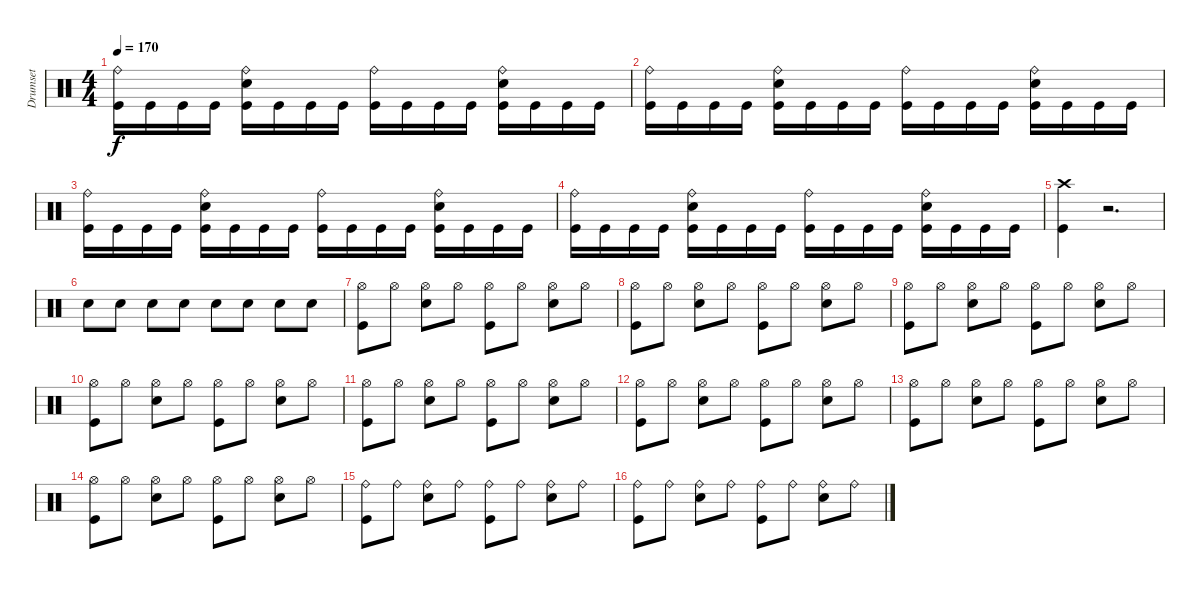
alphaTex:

\track ("Drumset" "Drumset") {instrument percussion}
\staff {score}
\articulation defaults
\ts (4 4)
\tempo 170
\clef neutral
\ks c
("Ride (bell)" "Kick (hit)").16{dy f} "Kick (hit)".16 "Kick (hit)".16 "Kick (hit)".16 ("Ride (bell)" "Snare (hit) 2" "Kick (hit)").16 "Kick (hit)".16 "Kick (hit)".16 "Kick (hit)".16 ("Ride (bell)" "Kick (hit)").16 "Kick (hit)".16 "Kick (hit)".16 "Kick (hit)".16 ("Ride (bell)" "Snare (hit) 2" "Kick (hit)").16 "Kick (hit)".16 "Kick (hit)".16 "Kick (hit)".16 |
("Ride (bell)" "Kick (hit)").16 "Kick (hit)".16 "Kick (hit)".16 "Kick (hit)".16 ("Ride (bell)" "Snare (hit) 2" "Kick (hit)").16 "Kick (hit)".16 "Kick (hit)".16 "Kick (hit)".16 ("Ride (bell)" "Kick (hit)").16 "Kick (hit)".16 "Kick (hit)".16 "Kick (hit)".16 ("Ride (bell)" "Snare (hit) 2" "Kick (hit)").16 "Kick (hit)".16 "Kick (hit)".16 "Kick (hit)".16 |
("Ride (bell)" "Kick (hit)").16 "Kick (hit)".16 "Kick (hit)".16 "Kick (hit)".16 ("Ride (bell)" "Snare (hit) 2" "Kick (hit)").16 "Kick (hit)".16 "Kick (hit)".16 "Kick (hit)".16 ("Ride (bell)" "Kick (hit)").16 "Kick (hit)".16 "Kick (hit)".16 "Kick (hit)".16 ("Ride (bell)" "Snare (hit) 2" "Kick (hit)").16 "Kick (hit)".16 "Kick (hit)".16 "Kick (hit)".16 |
("Ride (bell)" "Kick (hit)").16 "Kick (hit)".16 "Kick (hit)".16 "Kick (hit)".16 ("Ride (bell)" "Snare (hit) 2" "Kick (hit)").16 "Kick (hit)".16 "Kick (hit)".16 "Kick (hit)".16 ("Ride (bell)" "Kick (hit)").16 "Kick (hit)".16 "Kick (hit)".16 "Kick (hit)".16 ("Ride (bell)" "Snare (hit) 2" "Kick (hit)").16 "Kick (hit)".16 "Kick (hit)".16 "Kick (hit)".16 |
("Crash high (hit)" "Kick (hit)").4 r.2{d} |
"Snare (hit) 2".8 "Snare (hit) 2".8 "Snare (hit) 2".8 "Snare (hit) 2".8 "Snare (hit) 2".8 "Snare (hit) 2".8 "Snare (hit) 2".8 "Snare (hit) 2".8 |
("Hi-Hat (open)" "Kick (hit)").8 "Hi-Hat (open)".8 ("Hi-Hat (open)" "Snare (hit) 2").8 "Hi-Hat (open)".8 ("Hi-Hat (open)" "Kick (hit)").8 "Hi-Hat (open)".8 ("Hi-Hat (open)" "Snare (hit) 2").8 "Hi-Hat (open)".8 |
("Hi-Hat (open)" "Kick (hit)").8 "Hi-Hat (open)".8 ("Hi-Hat (open)" "Snare (hit) 2").8 "Hi-Hat (open)".8 ("Hi-Hat (open)" "Kick (hit)").8 "Hi-Hat (open)".8 ("Hi-Hat (open)" "Snare (hit) 2").8 "Hi-Hat (open)".8 |
("Hi-Hat (open)" "Kick (hit)").8 "Hi-Hat (open)".8 ("Hi-Hat (open)" "Snare (hit) 2").8 "Hi-Hat (open)".8 ("Hi-Hat (open)" "Kick (hit)").8 "Hi-Hat (open)".8 ("Hi-Hat (open)" "Snare (hit) 2").8 "Hi-Hat (open)".8 |
("Hi-Hat (open)" "Kick (hit)").8 "Hi-Hat (open)".8 ("Hi-Hat (open)" "Snare (hit) 2").8 "Hi-Hat (open)".8 ("Hi-Hat (open)" "Kick (hit)").8 "Hi-Hat (open)".8 ("Hi-Hat (open)" "Snare (hit) 2").8 "Hi-Hat (open)".8 |
("Hi-Hat (open)" "Kick (hit)").8 "Hi-Hat (open)".8 ("Hi-Hat (open)" "Snare (hit) 2").8 "Hi-Hat (open)".8 ("Hi-Hat (open)" "Kick (hit)").8 "Hi-Hat (open)".8 ("Hi-Hat (open)" "Snare (hit) 2").8 "Hi-Hat (open)".8 |
("Hi-Hat (open)" "Kick (hit)").8 "Hi-Hat (open)".8 ("Hi-Hat (open)" "Snare (hit) 2").8 "Hi-Hat (open)".8 ("Hi-Hat (open)" "Kick (hit)").8 "Hi-Hat (open)".8 ("Hi-Hat (open)" "Snare (hit) 2").8 "Hi-Hat (open)".8 |
("Hi-Hat (open)" "Kick (hit)").8 "Hi-Hat (open)".8 ("Hi-Hat (open)" "Snare (hit) 2").8 "Hi-Hat (open)".8 ("Hi-Hat (open)" "Kick (hit)").8 "Hi-Hat (open)".8 ("Hi-Hat (open)" "Snare (hit) 2").8 "Hi-Hat (open)".8 |
("Hi-Hat (open)" "Kick (hit)").8 "Hi-Hat (open)".8 ("Hi-Hat (open)" "Snare (hit) 2").8 "Hi-Hat (open)".8 ("Hi-Hat (open)" "Kick (hit)").8 "Hi-Hat (open)".8 ("Hi-Hat (open)" "Snare (hit) 2").8 "Hi-Hat (open)".8 |
("Ride (bell)" "Kick (hit)").8 "Ride (bell)".8 ("Ride (bell)" "Snare (hit) 2").8 "Ride (bell)".8 ("Ride (bell)" "Kick (hit)").8 "Ride (bell)".8 ("Ride (bell)" "Snare (hit) 2").8 "Ride (bell)".8 |
("Ride (bell)" "Kick (hit)").8 "Ride (bell)".8 ("Ride (bell)" "Snare (hit) 2").8 "Ride (bell)".8 ("Ride (bell)" "Kick (hit)").8 "Ride (bell)".8 ("Ride (bell)" "Snare (hit) 2").8 "Ride (bell)".8
